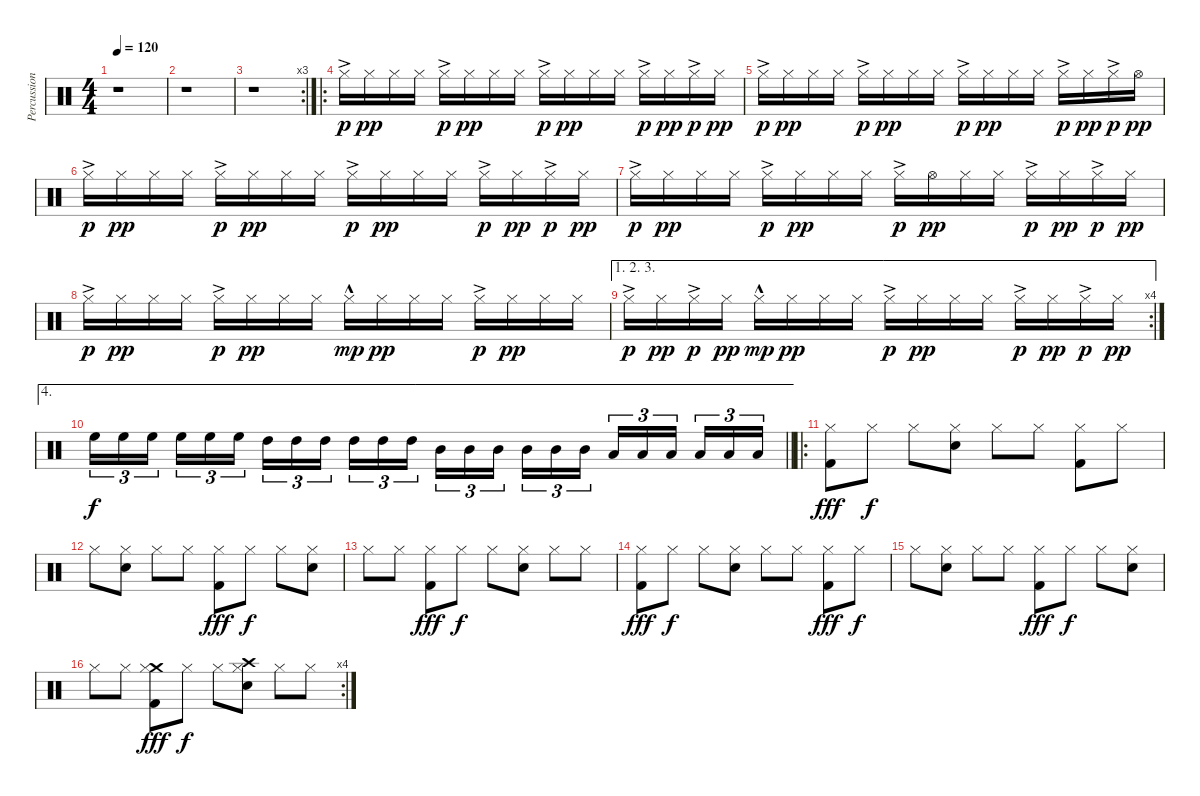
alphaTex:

\track ("Percussion" "Percussion") {instrument percussion}
\staff {score}
\articulation defaults
\ts (4 4)
\tempo 120
\clef neutral
\ks c
r.1{dy mp} |
r.1 |
\rc 3
r.1 |
\ro "Hi-Hat (closed)"{ac}.16{dy p volume 13} "Hi-Hat (closed)".16{dy pp} "Hi-Hat (closed)".16 "Hi-Hat (closed)".16 "Hi-Hat (closed)"{ac}.16{dy p} "Hi-Hat (closed)".16{dy pp} "Hi-Hat (closed)".16 "Hi-Hat (closed)".16 "Hi-Hat (closed)"{ac}.16{dy p} "Hi-Hat (closed)".16{dy pp} "Hi-Hat (closed)".16 "Hi-Hat (closed)".16 "Hi-Hat (closed)"{ac}.16{dy p} "Hi-Hat (closed)".16{dy pp} "Hi-Hat (closed)"{ac}.16{dy p} "Hi-Hat (closed)".16{dy pp}
|
"Hi-Hat (closed)"{ac}.16{dy p volume 13} "Hi-Hat (closed)".16{dy pp} "Hi-Hat (closed)".16 "Hi-Hat (closed)".16 "Hi-Hat (closed)"{ac}.16{dy p} "Hi-Hat (closed)".16{dy pp} "Hi-Hat (closed)".16 "Hi-Hat (closed)".16 "Hi-Hat (closed)"{ac}.16{dy p} "Hi-Hat (closed)".16{dy pp} "Hi-Hat (closed)".16 "Hi-Hat (closed)".16 "Hi-Hat (closed)"{ac}.16{dy p} "Hi-Hat (closed)".16{dy pp} "Hi-Hat (closed)"{ac}.16{dy p} "Hi-Hat (open)".16{dy pp} |
"Hi-Hat (closed)"{ac}.16{dy p volume 13} "Hi-Hat (closed)".16{dy pp} "Hi-Hat (closed)".16 "Hi-Hat (closed)".16 "Hi-Hat (closed)"{ac}.16{dy p} "Hi-Hat (closed)".16{dy pp} "Hi-Hat (closed)".16 "Hi-Hat (closed)".16 "Hi-Hat (closed)"{ac}.16{dy p} "Hi-Hat (closed)".16{dy pp} "Hi-Hat (closed)".16 "Hi-Hat (closed)".16 "Hi-Hat (closed)"{ac}.16{dy p} "Hi-Hat (closed)".16{dy pp} "Hi-Hat (closed)"{ac}.16{dy p} "Hi-Hat (closed)".16{dy pp} |
"Hi-Hat (closed)"{ac}.16{dy p volume 13} "Hi-Hat (closed)".16{dy pp} "Hi-Hat (closed)".16 "Hi-Hat (closed)".16 "Hi-Hat (closed)"{ac}.16{dy p} "Hi-Hat (closed)".16{dy pp} "Hi-Hat (closed)".16 "Hi-Hat (closed)".16 "Hi-Hat (closed)"{ac}.16{dy p} "Hi-Hat (open)".16{dy pp} "Hi-Hat (closed)".16 "Hi-Hat (closed)".16 "Hi-Hat (closed)"{ac}.16{dy p} "Hi-Hat (closed)".16{dy pp} "Hi-Hat (closed)"{ac}.16{dy p} "Hi-Hat (closed)".16{dy pp} |
"Hi-Hat (closed)"{ac}.16{dy p volume 13} "Hi-Hat (closed)".16{dy pp} "Hi-Hat (closed)".16 "Hi-Hat (closed)".16 "Hi-Hat (closed)"{ac}.16{dy p} "Hi-Hat (closed)".16{dy pp} "Hi-Hat (closed)".16 "Hi-Hat (closed)".16 "Hi-Hat (closed)"{hac}.16{dy mp} "Hi-Hat (closed)".16{dy pp} "Hi-Hat (closed)".16 "Hi-Hat (closed)".16 "Hi-Hat (closed)"{ac}.16{dy p} "Hi-Hat (closed)".16{dy pp} "Hi-Hat (closed)".16 "Hi-Hat (closed)".16 |
\ae (1 2 3)
\rc 4 "Hi-Hat (closed)"{ac}.16{dy p} "Hi-Hat (closed)".16{dy pp} "Hi-Hat (closed)"{ac}.16{dy p} "Hi-Hat (closed)".16{dy pp} "Hi-Hat (closed)"{hac}.16{dy mp} "Hi-Hat (closed)".16{dy pp} "Hi-Hat (closed)".16 "Hi-Hat (closed)".16 "Hi-Hat (closed)"{ac}.16{dy p} "Hi-Hat (closed)".16{dy pp} "Hi-Hat (closed)".16 "Hi-Hat (closed)".16 "Hi-Hat (closed)"{ac}.16{dy p} "Hi-Hat (closed)".16{dy pp} "Hi-Hat (closed)"{ac}.16{dy p} "Hi-Hat (closed)".16{dy pp}
|
\ae 4
\barLineRight lightlight "High Floor Tom (hit)".16{tu (3 2) dy f} "High Floor Tom (hit)".16{tu (3 2)} "High Floor Tom (hit)".16{tu (3 2) beam splitsecondary} "High Floor Tom (hit)".16{tu (3 2)} "High Floor Tom (hit)".16{tu (3 2)} "High Floor Tom (hit)".16{tu (3 2)} "High Tom (hit)".16{tu (3 2)} "High Tom (hit)".16{tu (3 2)} "High Tom (hit)".16{tu (3 2) beam splitsecondary} "High Tom (hit)".16{tu (3 2)} "High Tom (hit)".16{tu (3 2)} "High Tom (hit)".16{tu (3 2)} "Mid Tom (hit)".16{tu (3 2)} "Mid Tom (hit)".16{tu (3 2)} "Mid Tom (hit)".16{tu (3 2) beam splitsecondary} "Mid Tom (hit)".16{tu (3 2)} "Mid Tom (hit)".16{tu (3 2)} "Mid Tom (hit)".16{tu (3 2)} "Low Tom (hit)".16{tu (3 2)} "Low Tom (hit)".16{tu (3 2)} "Low Tom (hit)".16{tu (3 2) beam splitsecondary} "Low Tom (hit)".16{tu (3 2)} "Low Tom (hit)".16{tu (3 2)} "Low Tom (hit)".16{tu (3 2)}
|
\ro
("Hi-Hat (closed)" "Kick (hit) 2").8{dy fff} "Hi-Hat (closed)".8{dy f} "Hi-Hat (closed)".8 ("Snare (hit) 2" "Hi-Hat (closed)").8 "Hi-Hat (closed)".8 "Hi-Hat (closed)".8 ("Hi-Hat (closed)" "Kick (hit) 2").8 "Hi-Hat (closed)".8 |
"Hi-Hat (closed)".8 ("Snare (hit) 2" "Hi-Hat (closed)").8 "Hi-Hat (closed)".8 "Hi-Hat (closed)".8 ("Hi-Hat (closed)" "Kick (hit) 2").8{dy fff} "Hi-Hat (closed)".8{dy f} "Hi-Hat (closed)".8 ("Snare (hit) 2" "Hi-Hat (closed)").8 |
"Hi-Hat (closed)".8 "Hi-Hat (closed)".8 ("Hi-Hat (closed)" "Kick (hit) 2").8{dy fff} "Hi-Hat (closed)".8{dy f} "Hi-Hat (closed)".8 ("Snare (hit) 2" "Hi-Hat (closed)").8 "Hi-Hat (closed)".8 "Hi-Hat (closed)".8 |
("Hi-Hat (closed)" "Kick (hit) 2").8{dy fff} "Hi-Hat (closed)".8{dy f} "Hi-Hat (closed)".8 ("Snare (hit) 2" "Hi-Hat (closed)").8 "Hi-Hat (closed)".8 "Hi-Hat (closed)".8 ("Hi-Hat (closed)" "Kick (hit) 2").8{dy fff} "Hi-Hat (closed)".8{dy f} |
"Hi-Hat (closed)".8 ("Snare (hit) 2" "Hi-Hat (closed)").8 "Hi-Hat (closed)".8 "Hi-Hat (closed)".8 ("Hi-Hat (closed)" "Kick (hit) 2").8{dy fff} "Hi-Hat (closed)".8{dy f} "Hi-Hat (closed)".8 ("Snare (hit) 2" "Hi-Hat (closed)").8 |
\rc 4 "Hi-Hat (closed)".8 "Hi-Hat (closed)".8
("Crash medium (hit)" "Hi-Hat (closed)" "Kick (hit) 2").8{dy fff} "Hi-Hat (closed)".8{dy f} "Hi-Hat (closed)".8 ("Crash high (hit)" "Snare (hit) 2" "Hi-Hat (closed)").8 "Hi-Hat (closed)".8 "Hi-Hat (closed)".8
